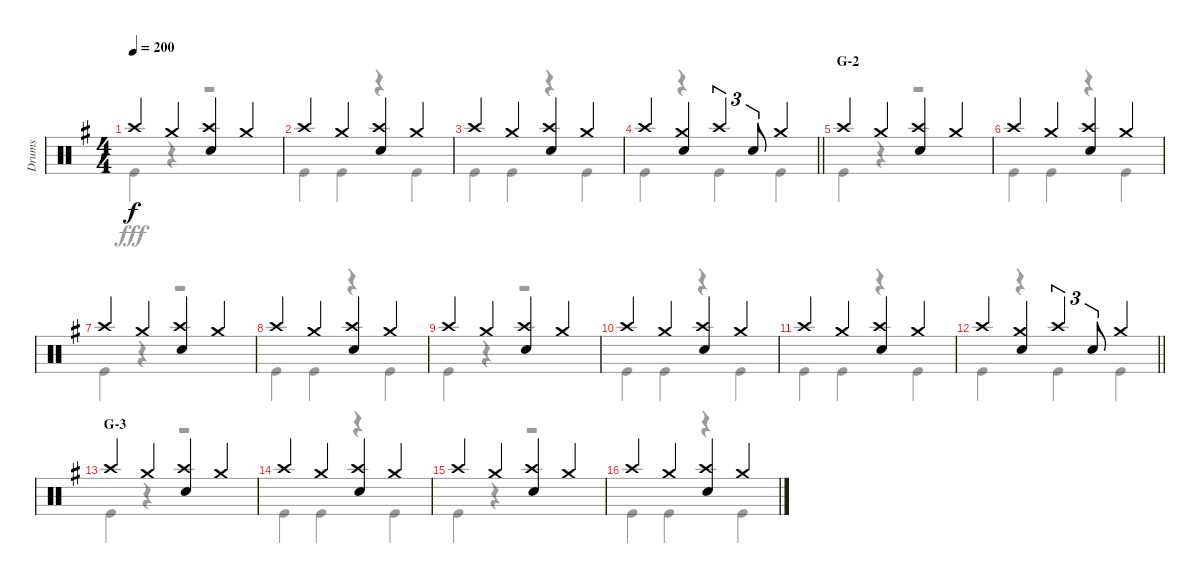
\track ("Drums" "Drums") {instrument percussion}
\staff {score}
\articulation defaults
\voice
\ts (4 4)
\tempo 200
\clef neutral
\ks g "Crash high (hit)".4{dy f} "Crash medium (hit)".4
("Crash high (hit)" "Snare (hit) 2").4 "Crash medium (hit)".4 |
"Crash high (hit)".4 "Crash medium (hit)".4 ("Crash high (hit)" "Snare (hit) 2").4 "Crash medium (hit)".4 |
"Crash high (hit)".4 "Crash medium (hit)".4 ("Crash high (hit)" "Snare (hit) 2").4 "Crash medium (hit)".4 |
\barLineRight lightlight "Crash high (hit)".4
("Crash medium (hit)" "Snare (hit) 2").4 "Crash high (hit)".4{tu (3 2)} "Snare (hit) 2".8{tu (3 2)} "Crash medium (hit)".4 |
\section ("" "G-2")
"Crash high (hit)".4 "Crash medium (hit)".4 ("Crash high (hit)" "Snare (hit) 2").4 "Crash medium (hit)".4 |
"Crash high (hit)".4 "Crash medium (hit)".4 ("Crash high (hit)" "Snare (hit) 2").4 "Crash medium (hit)".4 |
"Crash high (hit)".4 "Crash medium (hit)".4 ("Crash high (hit)" "Snare (hit) 2").4 "Crash medium (hit)".4 |
"Crash high (hit)".4 "Crash medium (hit)".4 ("Crash high (hit)" "Snare (hit) 2").4 "Crash medium (hit)".4 |
"Crash high (hit)".4 "Crash medium (hit)".4 ("Crash high (hit)" "Snare (hit) 2").4 "Crash medium (hit)".4 |
"Crash high (hit)".4 "Crash medium (hit)".4 ("Crash high (hit)" "Snare (hit) 2").4 "Crash medium (hit)".4 |
"Crash high (hit)".4 "Crash medium (hit)".4 ("Crash high (hit)" "Snare (hit) 2").4 "Crash medium (hit)".4 |
\barLineRight lightlight "Crash high (hit)".4
("Crash medium (hit)" "Snare (hit) 2").4 "Crash high (hit)".4{tu (3 2)} "Snare (hit) 2".8{tu (3 2)} "Crash medium (hit)".4 |
\section ("" "G-3")
"Crash high (hit)".4 "Crash medium (hit)".4 ("Crash high (hit)" "Snare (hit) 2").4 "Crash medium (hit)".4 |
"Crash high (hit)".4 "Crash medium (hit)".4 ("Crash high (hit)" "Snare (hit) 2").4 "Crash medium (hit)".4 |
"Crash high (hit)".4 "Crash medium (hit)".4 ("Crash high (hit)" "Snare (hit) 2").4 "Crash medium (hit)".4 |
"Crash high (hit)".4 "Crash medium (hit)".4 ("Crash high (hit)" "Snare (hit) 2").4 "Crash medium (hit)".4
\voice
\clef neutral
\ottava regular
\simile none
\ks g "Kick (hit)".4{dy fff}
r.4 r.2 |
"Kick (hit)".4 "Kick (hit)".4 r.4 "Kick (hit)".4 |
"Kick (hit)".4 "Kick (hit)".4 r.4 "Kick (hit)".4 |
\barLineRight lightlight "Kick (hit)".4
r.4 "Kick (hit)".4 "Kick (hit)".4 |
"Kick (hit)".4 r.4 r.2 |
"Kick (hit)".4 "Kick (hit)".4 r.4 "Kick (hit)".4 |
"Kick (hit)".4 r.4 r.2 |
"Kick (hit)".4 "Kick (hit)".4 r.4 "Kick (hit)".4 |
"Kick (hit)".4 r.4 r.2 |
"Kick (hit)".4 "Kick (hit)".4 r.4 "Kick (hit)".4 |
"Kick (hit)".4 "Kick (hit)".4 r.4 "Kick (hit)".4 |
\barLineRight lightlight "Kick (hit)".4
r.4 "Kick (hit)".4 "Kick (hit)".4 |
"Kick (hit)".4 r.4 r.2 |
"Kick (hit)".4 "Kick (hit)".4 r.4 "Kick (hit)".4 |
"Kick (hit)".4 r.4 r.2 |
"Kick (hit)".4 "Kick (hit)".4 r.4 "Kick (hit)".4
